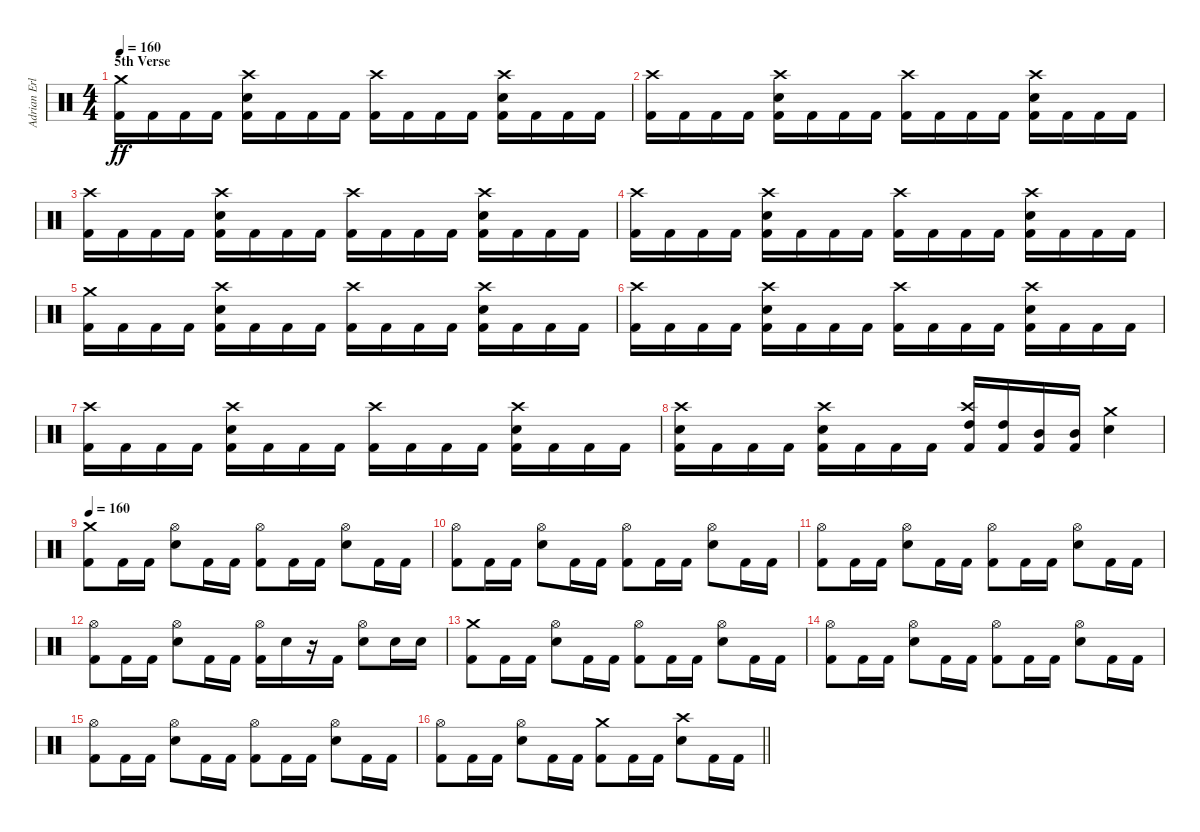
\track ("Adrian Erlandsson" "Adrian Erl") {instrument percussion}
\staff {score}
\articulation defaults
\ts (4 4)
\section ("" "5th Verse")
\tempo 160
\clef neutral
\ks c
("Kick (hit) 2" "Crash medium (hit)").16{dy ff} "Kick (hit) 2".16 "Kick (hit) 2".16 "Kick (hit) 2".16 ("Kick (hit) 2" "Electric Snare (hit)" "Crash high (hit)").16 "Kick (hit) 2".16 "Kick (hit) 2".16 "Kick (hit) 2".16 ("Kick (hit) 2" "Crash high (hit)").16 "Kick (hit) 2".16 "Kick (hit) 2".16 "Kick (hit) 2".16 ("Kick (hit) 2" "Electric Snare (hit)" "Crash high (hit)").16 "Kick (hit) 2".16 "Kick (hit) 2".16 "Kick (hit) 2".16 |
("Kick (hit) 2" "Crash high (hit)").16 "Kick (hit) 2".16 "Kick (hit) 2".16 "Kick (hit) 2".16 ("Kick (hit) 2" "Electric Snare (hit)" "Crash high (hit)").16 "Kick (hit) 2".16 "Kick (hit) 2".16 "Kick (hit) 2".16 ("Kick (hit) 2" "Crash high (hit)").16 "Kick (hit) 2".16 "Kick (hit) 2".16 "Kick (hit) 2".16 ("Kick (hit) 2" "Electric Snare (hit)" "Crash high (hit)").16 "Kick (hit) 2".16 "Kick (hit) 2".16 "Kick (hit) 2".16 |
("Kick (hit) 2" "Crash high (hit)").16 "Kick (hit) 2".16 "Kick (hit) 2".16 "Kick (hit) 2".16 ("Kick (hit) 2" "Electric Snare (hit)" "Crash high (hit)").16 "Kick (hit) 2".16 "Kick (hit) 2".16 "Kick (hit) 2".16 ("Kick (hit) 2" "Crash high (hit)").16 "Kick (hit) 2".16 "Kick (hit) 2".16 "Kick (hit) 2".16 ("Kick (hit) 2" "Electric Snare (hit)" "Crash high (hit)").16 "Kick (hit) 2".16 "Kick (hit) 2".16 "Kick (hit) 2".16 |
("Kick (hit) 2" "Crash high (hit)").16 "Kick (hit) 2".16 "Kick (hit) 2".16 "Kick (hit) 2".16 ("Kick (hit) 2" "Electric Snare (hit)" "Crash high (hit)").16 "Kick (hit) 2".16 "Kick (hit) 2".16 "Kick (hit) 2".16 ("Kick (hit) 2" "Crash high (hit)").16 "Kick (hit) 2".16 "Kick (hit) 2".16 "Kick (hit) 2".16 ("Kick (hit) 2" "Electric Snare (hit)" "Crash high (hit)").16 "Kick (hit) 2".16 "Kick (hit) 2".16 "Kick (hit) 2".16 |
("Kick (hit) 2" "Crash medium (hit)").16 "Kick (hit) 2".16 "Kick (hit) 2".16 "Kick (hit) 2".16 ("Kick (hit) 2" "Electric Snare (hit)" "Crash high (hit)").16 "Kick (hit) 2".16 "Kick (hit) 2".16 "Kick (hit) 2".16 ("Kick (hit) 2" "Crash high (hit)").16 "Kick (hit) 2".16 "Kick (hit) 2".16 "Kick (hit) 2".16 ("Kick (hit) 2" "Electric Snare (hit)" "Crash high (hit)").16 "Kick (hit) 2".16 "Kick (hit) 2".16 "Kick (hit) 2".16 |
("Kick (hit) 2" "Crash high (hit)").16 "Kick (hit) 2".16 "Kick (hit) 2".16 "Kick (hit) 2".16 ("Kick (hit) 2" "Electric Snare (hit)" "Crash high (hit)").16 "Kick (hit) 2".16 "Kick (hit) 2".16 "Kick (hit) 2".16 ("Kick (hit) 2" "Crash high (hit)").16 "Kick (hit) 2".16 "Kick (hit) 2".16 "Kick (hit) 2".16 ("Kick (hit) 2" "Electric Snare (hit)" "Crash high (hit)").16 "Kick (hit) 2".16 "Kick (hit) 2".16 "Kick (hit) 2".16 |
("Kick (hit) 2" "Crash high (hit)").16 "Kick (hit) 2".16 "Kick (hit) 2".16 "Kick (hit) 2".16 ("Kick (hit) 2" "Electric Snare (hit)" "Crash high (hit)").16 "Kick (hit) 2".16 "Kick (hit) 2".16 "Kick (hit) 2".16 ("Kick (hit) 2" "Crash high (hit)").16 "Kick (hit) 2".16 "Kick (hit) 2".16 "Kick (hit) 2".16 ("Kick (hit) 2" "Electric Snare (hit)" "Crash high (hit)").16 "Kick (hit) 2".16 "Kick (hit) 2".16 "Kick (hit) 2".16 |
("Kick (hit) 2" "Electric Snare (hit)" "Crash high (hit)").16 "Kick (hit) 2".16 "Kick (hit) 2".16 "Kick (hit) 2".16 ("Kick (hit) 2" "Electric Snare (hit)" "Crash high (hit)").16 "Kick (hit) 2".16 "Kick (hit) 2".16 "Kick (hit) 2".16 ("Kick (hit) 2" "High Tom (hit)" "Crash high (hit)").16 ("Kick (hit) 2" "High Tom (hit)").16 ("Kick (hit) 2" "Mid Tom (hit)").16 ("Kick (hit) 2" "Mid Tom (hit)").16 ("Electric Snare (hit)" "Crash medium (hit)").4 |
\tempo 160
("Kick (hit) 2" "Crash medium (hit)").8 "Kick (hit) 2".16 "Kick (hit) 2".16 ("Electric Snare (hit)" "Hi-Hat (open)").8 "Kick (hit) 2".16 "Kick (hit) 2".16 ("Kick (hit) 2" "Hi-Hat (open)").8 "Kick (hit) 2".16 "Kick (hit) 2".16 ("Electric Snare (hit)" "Hi-Hat (open)").8 "Kick (hit) 2".16 "Kick (hit) 2".16 |
("Kick (hit) 2" "Hi-Hat (open)").8 "Kick (hit) 2".16 "Kick (hit) 2".16 ("Electric Snare (hit)" "Hi-Hat (open)").8 "Kick (hit) 2".16 "Kick (hit) 2".16 ("Kick (hit) 2" "Hi-Hat (open)").8 "Kick (hit) 2".16 "Kick (hit) 2".16 ("Electric Snare (hit)" "Hi-Hat (open)").8 "Kick (hit) 2".16 "Kick (hit) 2".16 |
("Kick (hit) 2" "Hi-Hat (open)").8 "Kick (hit) 2".16 "Kick (hit) 2".16 ("Electric Snare (hit)" "Hi-Hat (open)").8 "Kick (hit) 2".16 "Kick (hit) 2".16 ("Kick (hit) 2" "Hi-Hat (open)").8 "Kick (hit) 2".16 "Kick (hit) 2".16 ("Electric Snare (hit)" "Hi-Hat (open)").8 "Kick (hit) 2".16 "Kick (hit) 2".16 |
("Kick (hit) 2" "Hi-Hat (open)").8 "Kick (hit) 2".16 "Kick (hit) 2".16 ("Electric Snare (hit)" "Hi-Hat (open)").8 "Kick (hit) 2".16 "Kick (hit) 2".16 ("Kick (hit) 2" "Hi-Hat (open)").16 "Electric Snare (hit)".16 r.16 "Kick (hit) 2".16 ("Electric Snare (hit)" "Hi-Hat (open)").8 "Electric Snare (hit)".16 "Electric Snare (hit)".16 |
("Kick (hit) 2" "Crash medium (hit)").8 "Kick (hit) 2".16 "Kick (hit) 2".16 ("Electric Snare (hit)" "Hi-Hat (open)").8 "Kick (hit) 2".16 "Kick (hit) 2".16 ("Kick (hit) 2" "Hi-Hat (open)").8 "Kick (hit) 2".16 "Kick (hit) 2".16 ("Electric Snare (hit)" "Hi-Hat (open)").8 "Kick (hit) 2".16 "Kick (hit) 2".16 |
("Kick (hit) 2" "Hi-Hat (open)").8 "Kick (hit) 2".16 "Kick (hit) 2".16 ("Electric Snare (hit)" "Hi-Hat (open)").8 "Kick (hit) 2".16 "Kick (hit) 2".16 ("Kick (hit) 2" "Hi-Hat (open)").8 "Kick (hit) 2".16 "Kick (hit) 2".16 ("Electric Snare (hit)" "Hi-Hat (open)").8 "Kick (hit) 2".16 "Kick (hit) 2".16 |
("Kick (hit) 2" "Hi-Hat (open)").8 "Kick (hit) 2".16 "Kick (hit) 2".16 ("Electric Snare (hit)" "Hi-Hat (open)").8 "Kick (hit) 2".16 "Kick (hit) 2".16 ("Kick (hit) 2" "Hi-Hat (open)").8 "Kick (hit) 2".16 "Kick (hit) 2".16 ("Electric Snare (hit)" "Hi-Hat (open)").8 "Kick (hit) 2".16 "Kick (hit) 2".16 |
\barLineRight lightlight
("Kick (hit) 2" "Hi-Hat (open)").8 "Kick (hit) 2".16 "Kick (hit) 2".16 ("Electric Snare (hit)" "Hi-Hat (open)").8 "Kick (hit) 2".16 "Kick (hit) 2".16 ("Kick (hit) 2" "Crash medium (hit)").8 "Kick (hit) 2".16 "Kick (hit) 2".16 ("Electric Snare (hit)" "Crash high (hit)").8 "Kick (hit) 2".16 "Kick (hit) 2".16
